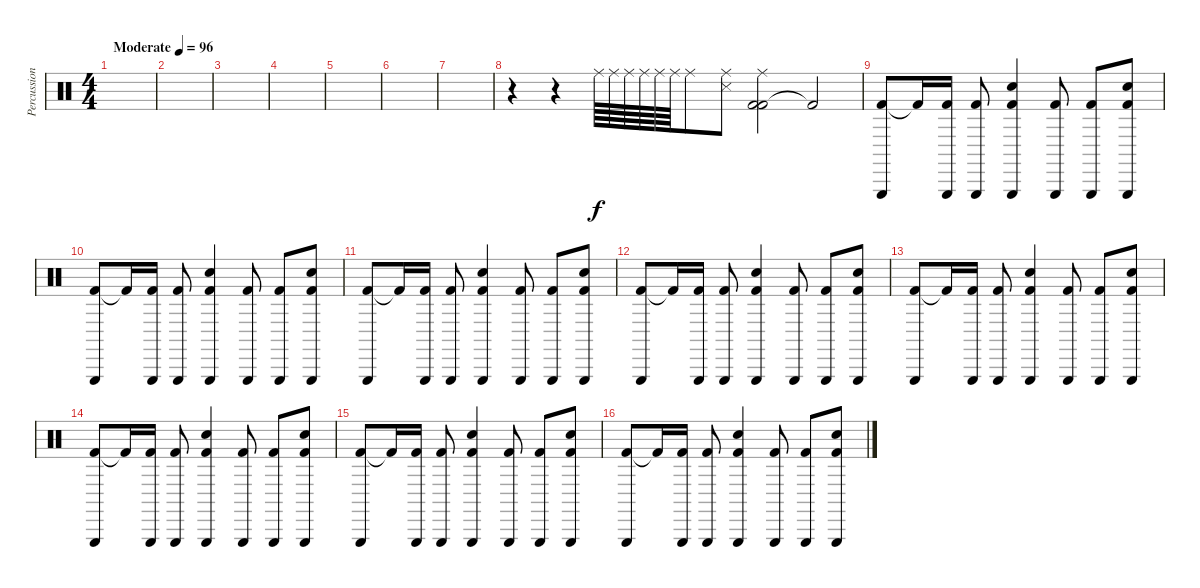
\track ("Percussion 2" "Percussion") {instrument percussion}
\staff {score}
\articulation defaults
\ts (4 4)
\tempo (96 "Moderate")
\clef neutral
\ks c
|
|
|
|
|
|
|
r.4 r.4 "Ride (middle)".64 "Ride (middle)".64 "Ride (middle)".64 "Ride (middle)".64 "Ride (middle)".64 "Ride (middle)".64 "Ride (middle)".8 ("Snare (side stick) 3" "Ride (middle)").8 ("Kick (hit) 2" "Kick (hit) 2" "Ride (middle)").2 "Kick (hit) 2"{t}.2 |
("Kick (hit) 2" "Triangle (hit)").8 "Kick (hit) 2"{t}.16 ("Kick (hit) 2" "Triangle (hit)").16 ("Kick (hit) 2" "Triangle (hit)").8 ("Kick (hit) 2" "Snare (hit) 2" "Triangle (hit)").4 ("Kick (hit) 2" "Triangle (hit)").8 ("Kick (hit) 2" "Triangle (hit)").8 ("Kick (hit) 2" "Snare (hit) 2" "Triangle (hit)").8 |
("Kick (hit) 2" "Triangle (hit)").8 "Kick (hit) 2"{t}.16 ("Kick (hit) 2" "Triangle (hit)").16 ("Kick (hit) 2" "Triangle (hit)").8 ("Kick (hit) 2" "Snare (hit) 2" "Triangle (hit)").4 ("Kick (hit) 2" "Triangle (hit)").8 ("Kick (hit) 2" "Triangle (hit)").8 ("Kick (hit) 2" "Snare (hit) 2" "Triangle (hit)").8 |
("Kick (hit) 2" "Triangle (hit)").8 "Kick (hit) 2"{t}.16 ("Kick (hit) 2" "Triangle (hit)").16 ("Kick (hit) 2" "Triangle (hit)").8 ("Kick (hit) 2" "Snare (hit) 2" "Triangle (hit)").4 ("Kick (hit) 2" "Triangle (hit)").8 ("Kick (hit) 2" "Triangle (hit)").8 ("Kick (hit) 2" "Snare (hit) 2" "Triangle (hit)").8 |
("Kick (hit) 2" "Triangle (hit)").8 "Kick (hit) 2"{t}.16 ("Kick (hit) 2" "Triangle (hit)").16 ("Kick (hit) 2" "Triangle (hit)").8 ("Kick (hit) 2" "Snare (hit) 2" "Triangle (hit)").4 ("Kick (hit) 2" "Triangle (hit)").8 ("Kick (hit) 2" "Triangle (hit)").8 ("Kick (hit) 2" "Snare (hit) 2" "Triangle (hit)").8 |
("Kick (hit) 2" "Triangle (hit)").8 "Kick (hit) 2"{t}.16 ("Kick (hit) 2" "Triangle (hit)").16 ("Kick (hit) 2" "Triangle (hit)").8 ("Kick (hit) 2" "Snare (hit) 2" "Triangle (hit)").4 ("Kick (hit) 2" "Triangle (hit)").8 ("Kick (hit) 2" "Triangle (hit)").8 ("Kick (hit) 2" "Snare (hit) 2" "Triangle (hit)").8 |
("Kick (hit) 2" "Triangle (hit)").8 "Kick (hit) 2"{t}.16 ("Kick (hit) 2" "Triangle (hit)").16 ("Kick (hit) 2" "Triangle (hit)").8 ("Kick (hit) 2" "Snare (hit) 2" "Triangle (hit)").4 ("Kick (hit) 2" "Triangle (hit)").8 ("Kick (hit) 2" "Triangle (hit)").8 ("Kick (hit) 2" "Snare (hit) 2" "Triangle (hit)").8 |
("Kick (hit) 2" "Triangle (hit)").8 "Kick (hit) 2"{t}.16 ("Kick (hit) 2" "Triangle (hit)").16 ("Kick (hit) 2" "Triangle (hit)").8 ("Kick (hit) 2" "Snare (hit) 2" "Triangle (hit)").4 ("Kick (hit) 2" "Triangle (hit)").8 ("Kick (hit) 2" "Triangle (hit)").8 ("Kick (hit) 2" "Snare (hit) 2" "Triangle (hit)").8 |
("Kick (hit) 2" "Triangle (hit)").8 "Kick (hit) 2"{t}.16 ("Kick (hit) 2" "Triangle (hit)").16 ("Kick (hit) 2" "Triangle (hit)").8 ("Kick (hit) 2" "Snare (hit) 2" "Triangle (hit)").4 ("Kick (hit) 2" "Triangle (hit)").8 ("Kick (hit) 2" "Triangle (hit)").8 ("Kick (hit) 2" "Snare (hit) 2" "Triangle (hit)").8
